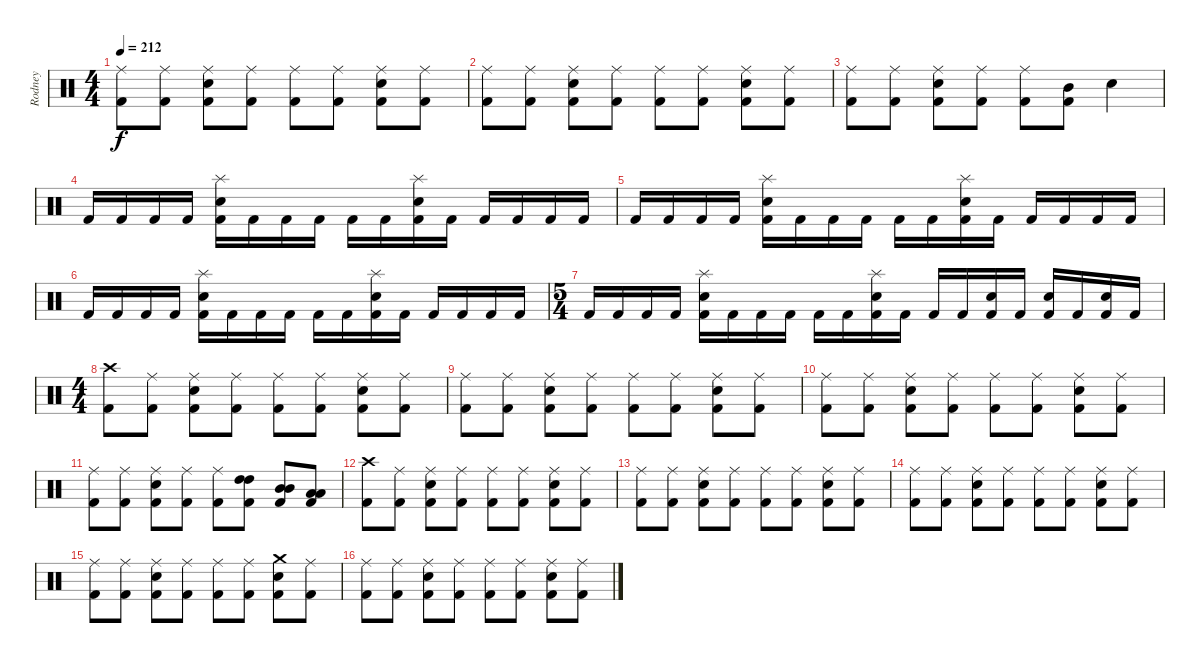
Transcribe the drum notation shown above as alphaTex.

\track ("Rodney" "Rodney") {instrument percussion}
\staff {score}
\articulation defaults
\ts (4 4)
\tempo 212
\clef neutral
\ks c
("Ride (middle)" "Kick (hit) 2").8{dy f} ("Ride (middle)" "Kick (hit) 2").8 ("Ride (middle)" "Snare (hit) 2" "Kick (hit) 2").8 ("Ride (middle)" "Kick (hit) 2").8 ("Ride (middle)" "Kick (hit) 2").8 ("Ride (middle)" "Kick (hit) 2").8 ("Ride (middle)" "Snare (hit) 2" "Kick (hit) 2").8 ("Ride (middle)" "Kick (hit) 2").8 |
("Ride (middle)" "Kick (hit) 2").8 ("Ride (middle)" "Kick (hit) 2").8 ("Ride (middle)" "Snare (hit) 2" "Kick (hit) 2").8 ("Ride (middle)" "Kick (hit) 2").8 ("Ride (middle)" "Kick (hit) 2").8 ("Ride (middle)" "Kick (hit) 2").8 ("Ride (middle)" "Snare (hit) 2" "Kick (hit) 2").8 ("Ride (middle)" "Kick (hit) 2").8 |
("Ride (middle)" "Kick (hit) 2").8 ("Ride (middle)" "Kick (hit) 2").8 ("Ride (middle)" "Snare (hit) 2" "Kick (hit) 2").8 ("Ride (middle)" "Kick (hit) 2").8 ("Ride (middle)" "Kick (hit) 2").8 ("Mid Tom (hit)" "Kick (hit) 2").8 "Snare (hit) 2".4 |
"Kick (hit) 2".16 "Kick (hit) 2".16 "Kick (hit) 2".16 "Kick (hit) 2".16 ("Splash (hit)" "Snare (hit) 2" "Kick (hit) 2").16 "Kick (hit) 2".16 "Kick (hit) 2".16 "Kick (hit) 2".16 "Kick (hit) 2".16 "Kick (hit) 2".16 ("Splash (hit)" "Snare (hit) 2" "Kick (hit) 2").16 "Kick (hit) 2".16 "Kick (hit) 2".16 "Kick (hit) 2".16 "Kick (hit) 2".16 "Kick (hit) 2".16 |
"Kick (hit) 2".16 "Kick (hit) 2".16 "Kick (hit) 2".16 "Kick (hit) 2".16 ("Splash (hit)" "Snare (hit) 2" "Kick (hit) 2").16 "Kick (hit) 2".16 "Kick (hit) 2".16 "Kick (hit) 2".16 "Kick (hit) 2".16 "Kick (hit) 2".16 ("Splash (hit)" "Snare (hit) 2" "Kick (hit) 2").16 "Kick (hit) 2".16 "Kick (hit) 2".16 "Kick (hit) 2".16 "Kick (hit) 2".16 "Kick (hit) 2".16 |
"Kick (hit) 2".16 "Kick (hit) 2".16 "Kick (hit) 2".16 "Kick (hit) 2".16 ("Splash (hit)" "Snare (hit) 2" "Kick (hit) 2").16 "Kick (hit) 2".16 "Kick (hit) 2".16 "Kick (hit) 2".16 "Kick (hit) 2".16 "Kick (hit) 2".16 ("Splash (hit)" "Snare (hit) 2" "Kick (hit) 2").16 "Kick (hit) 2".16 "Kick (hit) 2".16 "Kick (hit) 2".16 "Kick (hit) 2".16 "Kick (hit) 2".16 |
\ts (5 4)
"Kick (hit) 2".16 "Kick (hit) 2".16 "Kick (hit) 2".16 "Kick (hit) 2".16 ("Splash (hit)" "Snare (hit) 2" "Kick (hit) 2").16 "Kick (hit) 2".16 "Kick (hit) 2".16 "Kick (hit) 2".16 "Kick (hit) 2".16 "Kick (hit) 2".16 ("Splash (hit)" "Snare (hit) 2" "Kick (hit) 2").16 "Kick (hit) 2".16 "Kick (hit) 2".16 "Kick (hit) 2".16 ("Snare (hit) 2" "Kick (hit) 2").16 "Kick (hit) 2".16 ("Snare (hit) 2" "Kick (hit) 2").16 "Kick (hit) 2".16 ("Snare (hit) 2" "Kick (hit) 2").16 "Kick (hit) 2".16 |
\ts (4 4)
("Crash high (hit)" "Kick (hit) 2").8 ("Ride (middle)" "Kick (hit) 2").8 ("Ride (middle)" "Snare (hit) 2" "Kick (hit) 2").8 ("Ride (middle)" "Kick (hit) 2").8 ("Ride (middle)" "Kick (hit) 2").8 ("Ride (middle)" "Kick (hit) 2").8 ("Ride (middle)" "Snare (hit) 2" "Kick (hit) 2").8 ("Ride (middle)" "Kick (hit) 2").8 |
("Ride (middle)" "Kick (hit) 2").8 ("Ride (middle)" "Kick (hit) 2").8 ("Ride (middle)" "Snare (hit) 2" "Kick (hit) 2").8 ("Ride (middle)" "Kick (hit) 2").8 ("Ride (middle)" "Kick (hit) 2").8 ("Ride (middle)" "Kick (hit) 2").8 ("Ride (middle)" "Snare (hit) 2" "Kick (hit) 2").8 ("Ride (middle)" "Kick (hit) 2").8 |
("Ride (middle)" "Kick (hit) 2").8 ("Ride (middle)" "Kick (hit) 2").8 ("Ride (middle)" "Snare (hit) 2" "Kick (hit) 2").8 ("Ride (middle)" "Kick (hit) 2").8 ("Ride (middle)" "Kick (hit) 2").8 ("Ride (middle)" "Kick (hit) 2").8 ("Ride (middle)" "Snare (hit) 2" "Kick (hit) 2").8 ("Ride (middle)" "Kick (hit) 2").8 |
("Ride (middle)" "Kick (hit) 2").8 ("Ride (middle)" "Kick (hit) 2").8 ("Ride (middle)" "Snare (hit) 2" "Kick (hit) 2").8 ("Ride (middle)" "Kick (hit) 2").8 ("Ride (middle)" "Kick (hit) 2").8 ("High Tom (hit)" "High Tom (hit)" "Kick (hit) 2").8 ("Mid Tom (hit)" "Mid Tom (hit)" "Kick (hit) 2").8 ("Low Tom (hit)" "Low Tom (hit)" "Kick (hit) 2").8 |
("Crash high (hit)" "Kick (hit) 2").8 ("Ride (middle)" "Kick (hit) 2").8 ("Ride (middle)" "Snare (hit) 2" "Kick (hit) 2").8 ("Ride (middle)" "Kick (hit) 2").8 ("Ride (middle)" "Kick (hit) 2").8 ("Ride (middle)" "Kick (hit) 2").8 ("Ride (middle)" "Snare (hit) 2" "Kick (hit) 2").8 ("Ride (middle)" "Kick (hit) 2").8 |
("Ride (middle)" "Kick (hit) 2").8 ("Ride (middle)" "Kick (hit) 2").8 ("Ride (middle)" "Snare (hit) 2" "Kick (hit) 2").8 ("Ride (middle)" "Kick (hit) 2").8 ("Ride (middle)" "Kick (hit) 2").8 ("Ride (middle)" "Kick (hit) 2").8 ("Ride (middle)" "Snare (hit) 2" "Kick (hit) 2").8 ("Ride (middle)" "Kick (hit) 2").8 |
("Ride (middle)" "Kick (hit) 2").8 ("Ride (middle)" "Kick (hit) 2").8 ("Ride (middle)" "Snare (hit) 2" "Kick (hit) 2").8 ("Ride (middle)" "Kick (hit) 2").8 ("Ride (middle)" "Kick (hit) 2").8 ("Ride (middle)" "Kick (hit) 2").8 ("Ride (middle)" "Snare (hit) 2" "Kick (hit) 2").8 ("Ride (middle)" "Kick (hit) 2").8 |
("Ride (middle)" "Kick (hit) 2").8 ("Ride (middle)" "Kick (hit) 2").8 ("Ride (middle)" "Snare (hit) 2" "Kick (hit) 2").8 ("Ride (middle)" "Kick (hit) 2").8 ("Ride (middle)" "Kick (hit) 2").8 ("Ride (middle)" "Kick (hit) 2").8 ("Crash medium (hit)" "Snare (hit) 2" "Kick (hit) 2").8 ("Ride (middle)" "Kick (hit) 2").8 |
("Ride (middle)" "Kick (hit) 2").8 ("Ride (middle)" "Kick (hit) 2").8 ("Ride (middle)" "Snare (hit) 2" "Kick (hit) 2").8 ("Ride (middle)" "Kick (hit) 2").8 ("Ride (middle)" "Kick (hit) 2").8 ("Ride (middle)" "Kick (hit) 2").8 ("Ride (middle)" "Snare (hit) 2" "Kick (hit) 2").8 ("Ride (middle)" "Kick (hit) 2").8
